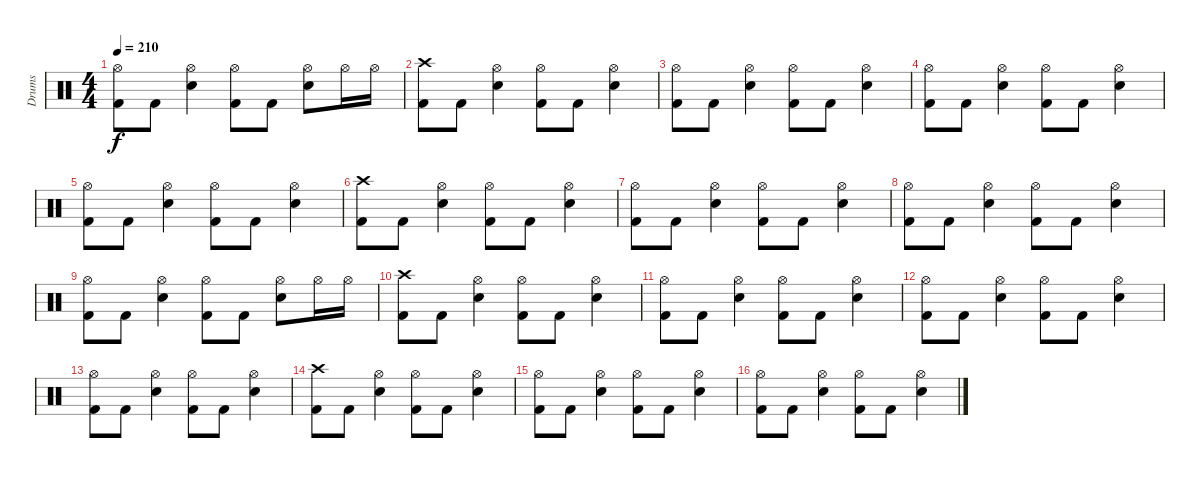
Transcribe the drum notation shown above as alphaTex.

\track ("Drums" "Drums") {instrument percussion}
\staff {score}
\articulation defaults
\ts (4 4)
\tempo 210
\clef neutral
\ks c
("Hi-Hat (open)" "Kick (hit) 2").8{dy f} "Kick (hit) 2".8 ("Hi-Hat (open)" "Snare (hit) 2").4 ("Hi-Hat (open)" "Kick (hit) 2").8 "Kick (hit) 2".8 ("Hi-Hat (open)" "Snare (hit) 2").8 "Hi-Hat (open)".16 "Hi-Hat (open)".16 |
("Crash high (hit)" "Kick (hit) 2").8 "Kick (hit) 2".8 ("Hi-Hat (open)" "Snare (hit) 2").4 ("Hi-Hat (open)" "Kick (hit) 2").8 "Kick (hit) 2".8 ("Hi-Hat (open)" "Snare (hit) 2").4 |
("Hi-Hat (open)" "Kick (hit) 2").8 "Kick (hit) 2".8 ("Hi-Hat (open)" "Snare (hit) 2").4 ("Hi-Hat (open)" "Kick (hit) 2").8 "Kick (hit) 2".8 ("Hi-Hat (open)" "Snare (hit) 2").4 |
("Hi-Hat (open)" "Kick (hit) 2").8 "Kick (hit) 2".8 ("Hi-Hat (open)" "Snare (hit) 2").4 ("Hi-Hat (open)" "Kick (hit) 2").8 "Kick (hit) 2".8 ("Hi-Hat (open)" "Snare (hit) 2").4 |
("Hi-Hat (open)" "Kick (hit) 2").8 "Kick (hit) 2".8 ("Hi-Hat (open)" "Snare (hit) 2").4 ("Hi-Hat (open)" "Kick (hit) 2").8 "Kick (hit) 2".8 ("Hi-Hat (open)" "Snare (hit) 2").4 |
("Crash high (hit)" "Kick (hit) 2").8 "Kick (hit) 2".8 ("Hi-Hat (open)" "Snare (hit) 2").4 ("Hi-Hat (open)" "Kick (hit) 2").8 "Kick (hit) 2".8 ("Hi-Hat (open)" "Snare (hit) 2").4 |
("Hi-Hat (open)" "Kick (hit) 2").8 "Kick (hit) 2".8 ("Hi-Hat (open)" "Snare (hit) 2").4 ("Hi-Hat (open)" "Kick (hit) 2").8 "Kick (hit) 2".8 ("Hi-Hat (open)" "Snare (hit) 2").4 |
("Hi-Hat (open)" "Kick (hit) 2").8 "Kick (hit) 2".8 ("Hi-Hat (open)" "Snare (hit) 2").4 ("Hi-Hat (open)" "Kick (hit) 2").8 "Kick (hit) 2".8 ("Hi-Hat (open)" "Snare (hit) 2").4 |
("Hi-Hat (open)" "Kick (hit) 2").8 "Kick (hit) 2".8 ("Hi-Hat (open)" "Snare (hit) 2").4 ("Hi-Hat (open)" "Kick (hit) 2").8 "Kick (hit) 2".8 ("Hi-Hat (open)" "Snare (hit) 2").8 "Hi-Hat (open)".16 "Hi-Hat (open)".16 |
("Crash high (hit)" "Kick (hit) 2").8 "Kick (hit) 2".8 ("Hi-Hat (open)" "Snare (hit) 2").4 ("Hi-Hat (open)" "Kick (hit) 2").8 "Kick (hit) 2".8 ("Hi-Hat (open)" "Snare (hit) 2").4 |
("Hi-Hat (open)" "Kick (hit) 2").8 "Kick (hit) 2".8 ("Hi-Hat (open)" "Snare (hit) 2").4 ("Hi-Hat (open)" "Kick (hit) 2").8 "Kick (hit) 2".8 ("Hi-Hat (open)" "Snare (hit) 2").4 |
("Hi-Hat (open)" "Kick (hit) 2").8 "Kick (hit) 2".8 ("Hi-Hat (open)" "Snare (hit) 2").4 ("Hi-Hat (open)" "Kick (hit) 2").8 "Kick (hit) 2".8 ("Hi-Hat (open)" "Snare (hit) 2").4 |
("Hi-Hat (open)" "Kick (hit) 2").8 "Kick (hit) 2".8 ("Hi-Hat (open)" "Snare (hit) 2").4 ("Hi-Hat (open)" "Kick (hit) 2").8 "Kick (hit) 2".8 ("Hi-Hat (open)" "Snare (hit) 2").4 |
("Crash high (hit)" "Kick (hit) 2").8 "Kick (hit) 2".8 ("Hi-Hat (open)" "Snare (hit) 2").4 ("Hi-Hat (open)" "Kick (hit) 2").8 "Kick (hit) 2".8 ("Hi-Hat (open)" "Snare (hit) 2").4 |
("Hi-Hat (open)" "Kick (hit) 2").8 "Kick (hit) 2".8 ("Hi-Hat (open)" "Snare (hit) 2").4 ("Hi-Hat (open)" "Kick (hit) 2").8 "Kick (hit) 2".8 ("Hi-Hat (open)" "Snare (hit) 2").4 |
("Hi-Hat (open)" "Kick (hit) 2").8 "Kick (hit) 2".8 ("Hi-Hat (open)" "Snare (hit) 2").4 ("Hi-Hat (open)" "Kick (hit) 2").8 "Kick (hit) 2".8 ("Hi-Hat (open)" "Snare (hit) 2").4
